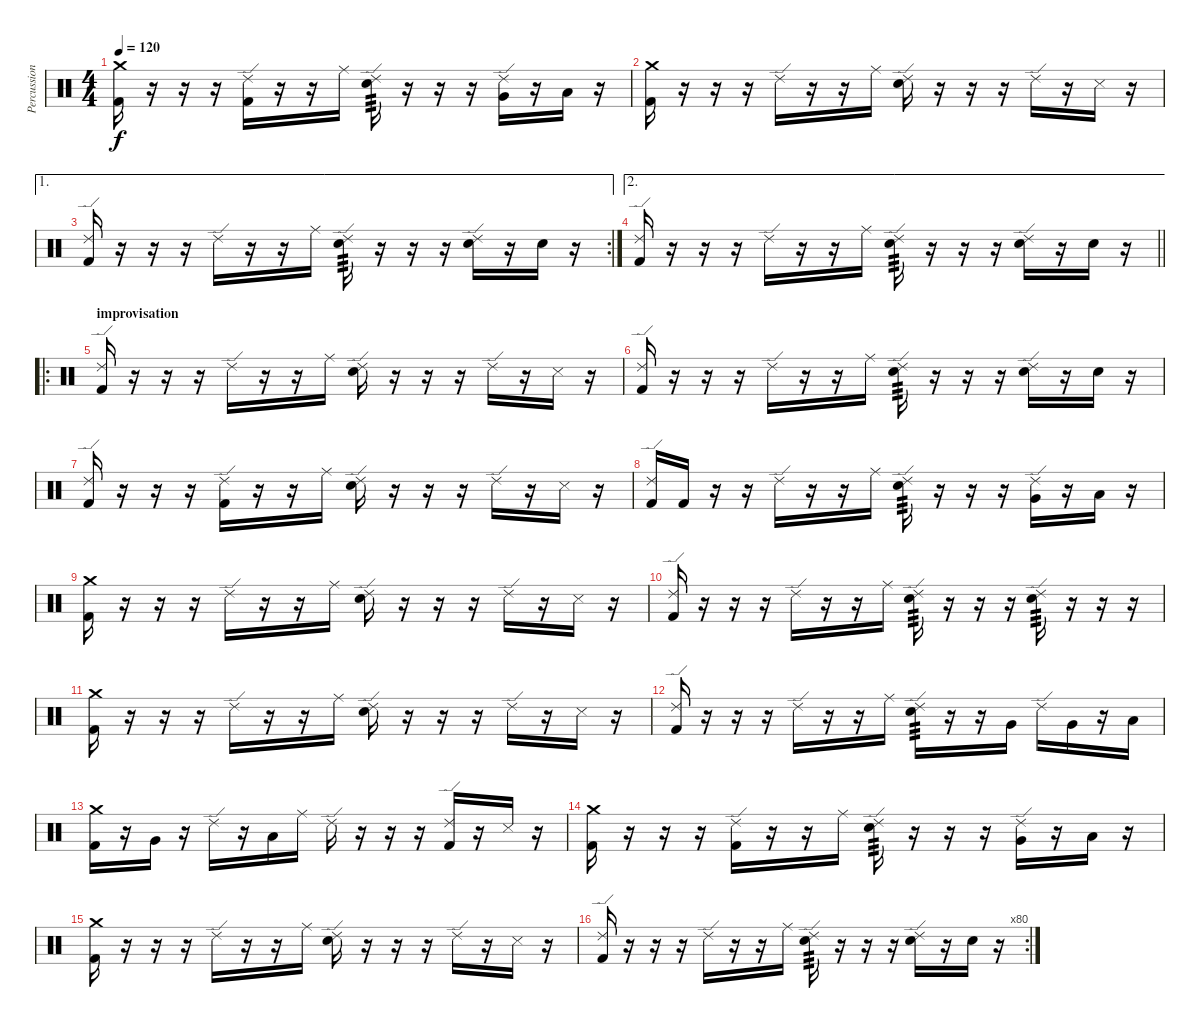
\track ("Percussions" "Percussion") {instrument percussion}
\staff {score}
\articulation defaults
\ts (4 4)
\tempo 120
\clef neutral
\ks c
("Crash medium (hit)" "Kick (hit) 2").16{dy f} r.16 r.16 r.16 ("Ride (edge) 2" "Kick (hit) 2").16 r.16 r.16 "Ride (middle)".16 ("Ride (edge) 2" "Snare (hit) 2").16{tp 3} r.16 r.16 r.16 ("Ride (edge) 2" "Very Low Tom (hit)").16 r.16 "Low Floor Tom (hit)".16 r.16 |
("Crash medium (hit)" "Kick (hit) 2").16 r.16 r.16 r.16 "Ride (edge) 2".16 r.16 r.16 "Ride (middle)".16 ("Ride (edge) 2" "Snare (hit) 2").16 r.16 r.16 r.16 "Ride (edge) 2".16 r.16 "Snare (side stick) 3".16 r.16 |
\ae 1
\rc 2
("Ride (edge) 2" "Kick (hit) 2").16 r.16 r.16 r.16 "Ride (edge) 2".16 r.16 r.16 "Ride (middle)".16 ("Ride (edge) 2" "Snare (hit) 2").16{tp 3} r.16 r.16 r.16 ("Ride (edge) 2" "Snare (hit) 2").16 r.16 "Snare (hit) 2".16 r.16 |
\ae 2
\barLineRight lightlight
("Ride (edge) 2" "Kick (hit) 2").16 r.16 r.16 r.16 "Ride (edge) 2".16 r.16 r.16 "Ride (middle)".16 ("Ride (edge) 2" "Snare (hit) 2").16{tp 3} r.16 r.16 r.16 ("Ride (edge) 2" "Snare (hit) 2").16 r.16 "Snare (hit) 2".16 r.16 |
\ro
\section ("" "improvisation")
("Ride (edge) 2" "Kick (hit) 2").16 r.16 r.16 r.16 "Ride (edge) 2".16 r.16 r.16 "Ride (middle)".16 ("Ride (edge) 2" "Snare (hit) 2").16 r.16 r.16 r.16 "Ride (edge) 2".16 r.16 "Snare (side stick) 3".16 r.16 |
("Ride (edge) 2" "Kick (hit) 2").16 r.16 r.16 r.16 "Ride (edge) 2".16 r.16 r.16 "Ride (middle)".16 ("Ride (edge) 2" "Snare (hit) 2").16{tp 3} r.16 r.16 r.16 ("Ride (edge) 2" "Snare (hit) 2").16 r.16 "Snare (hit) 2".16 r.16 |
("Ride (edge) 2" "Kick (hit) 2").16 r.16 r.16 r.16 ("Ride (edge) 2" "Kick (hit) 2").16 r.16 r.16 "Ride (middle)".16 ("Ride (edge) 2" "Snare (hit) 2").16 r.16 r.16 r.16 "Ride (edge) 2".16 r.16 "Snare (side stick) 3".16 r.16 |
("Ride (edge) 2" "Kick (hit) 2").16 "Kick (hit) 2".16 r.16 r.16 "Ride (edge) 2".16 r.16 r.16 "Ride (middle)".16 ("Ride (edge) 2" "Snare (hit) 2").16{tp 3} r.16 r.16 r.16 ("Ride (edge) 2" "Very Low Tom (hit)").16 r.16 "Low Floor Tom (hit)".16 r.16 |
("Crash medium (hit)" "Kick (hit) 2").16 r.16 r.16 r.16 "Ride (edge) 2".16 r.16 r.16 "Ride (middle)".16 ("Ride (edge) 2" "Snare (hit) 2").16 r.16 r.16 r.16 "Ride (edge) 2".16 r.16 "Snare (side stick) 3".16 r.16 |
("Ride (edge) 2" "Kick (hit) 2").16 r.16 r.16 r.16 "Ride (edge) 2".16 r.16 r.16 "Ride (middle)".16 ("Ride (edge) 2" "Snare (hit) 2").16{tp 3} r.16 r.16 r.16 ("Ride (edge) 2" "Snare (hit) 2").16{tp 3} r.16 r.16 r.16 |
("Crash medium (hit)" "Kick (hit) 2").16 r.16 r.16 r.16 "Ride (edge) 2".16 r.16 r.16 "Ride (middle)".16 ("Ride (edge) 2" "Snare (hit) 2").16 r.16 r.16 r.16 "Ride (edge) 2".16 r.16 "Snare (side stick) 3".16 r.16 |
("Ride (edge) 2" "Kick (hit) 2").16 r.16 r.16 r.16 "Ride (edge) 2".16 r.16 r.16 "Ride (middle)".16 ("Ride (edge) 2" "Snare (hit) 2").16{tp 3} r.16 r.16 "Very Low Tom (hit)".16 "Ride (edge) 2".16 "Very Low Tom (hit)".16 r.16 "Low Floor Tom (hit)".16 |
("Crash medium (hit)" "Kick (hit) 2").16 r.16 "Very Low Tom (hit)".16 r.16 "Ride (edge) 2".16 r.16 "Low Floor Tom (hit)".16 "Ride (middle)".16 "Ride (edge) 2".16 r.16 r.16 r.16 ("Ride (edge) 2" "Kick (hit) 2").16 r.16 "Snare (side stick) 3".16 r.16 |
("Crash medium (hit)" "Kick (hit) 2").16 r.16 r.16 r.16 ("Ride (edge) 2" "Kick (hit) 2").16 r.16 r.16 "Ride (middle)".16 ("Ride (edge) 2" "Snare (hit) 2").16{tp 3} r.16 r.16 r.16 ("Ride (edge) 2" "Very Low Tom (hit)").16 r.16 "Low Floor Tom (hit)".16 r.16 |
("Crash medium (hit)" "Kick (hit) 2").16 r.16 r.16 r.16 "Ride (edge) 2".16 r.16 r.16 "Ride (middle)".16 ("Ride (edge) 2" "Snare (hit) 2").16 r.16 r.16 r.16 "Ride (edge) 2".16 r.16 "Snare (side stick) 3".16 r.16 |
\rc 80
("Ride (edge) 2" "Kick (hit) 2").16 r.16 r.16 r.16 "Ride (edge) 2".16 r.16 r.16 "Ride (middle)".16 ("Ride (edge) 2" "Snare (hit) 2").16{tp 3} r.16 r.16 r.16 ("Ride (edge) 2" "Snare (hit) 2").16 r.16 "Snare (hit) 2".16 r.16
